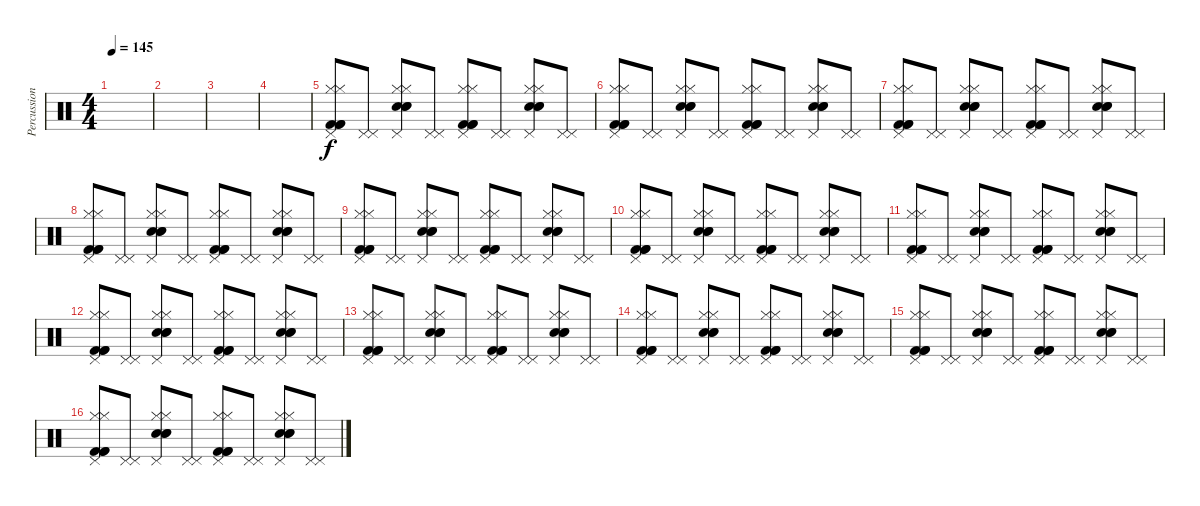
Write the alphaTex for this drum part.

\track ("Percussion" "Percussion") {instrument percussion}
\staff {score}
\articulation defaults
\ts (4 4)
\tempo 145
\clef neutral
\ks c
|
|
|
|
("Pedal Hi-Hat (hit)" "Hi-Hat (closed)" "Hi-Hat (closed)" "Kick (hit) 2" "Kick (hit) 2" "Kick (hit) 2").8 ("Pedal Hi-Hat (hit)" "Pedal Hi-Hat (hit)").8 ("Pedal Hi-Hat (hit)" "Hi-Hat (closed)" "Hi-Hat (closed)" "Snare (hit) 2" "Snare (hit) 2" "Snare (hit) 2").8 ("Pedal Hi-Hat (hit)" "Pedal Hi-Hat (hit)").8 ("Pedal Hi-Hat (hit)" "Hi-Hat (closed)" "Hi-Hat (closed)" "Kick (hit) 2" "Kick (hit) 2" "Kick (hit) 2").8 ("Pedal Hi-Hat (hit)" "Pedal Hi-Hat (hit)").8 ("Pedal Hi-Hat (hit)" "Hi-Hat (closed)" "Hi-Hat (closed)" "Snare (hit) 2" "Snare (hit) 2" "Snare (hit) 2").8 ("Pedal Hi-Hat (hit)" "Pedal Hi-Hat (hit)").8 |
("Pedal Hi-Hat (hit)" "Hi-Hat (closed)" "Hi-Hat (closed)" "Kick (hit) 2" "Kick (hit) 2" "Kick (hit) 2").8 ("Pedal Hi-Hat (hit)" "Pedal Hi-Hat (hit)").8 ("Pedal Hi-Hat (hit)" "Hi-Hat (closed)" "Hi-Hat (closed)" "Snare (hit) 2" "Snare (hit) 2" "Snare (hit) 2").8 ("Pedal Hi-Hat (hit)" "Pedal Hi-Hat (hit)").8 ("Pedal Hi-Hat (hit)" "Hi-Hat (closed)" "Hi-Hat (closed)" "Kick (hit) 2" "Kick (hit) 2" "Kick (hit) 2").8 ("Pedal Hi-Hat (hit)" "Pedal Hi-Hat (hit)").8 ("Pedal Hi-Hat (hit)" "Hi-Hat (closed)" "Hi-Hat (closed)" "Snare (hit) 2" "Snare (hit) 2" "Snare (hit) 2").8 ("Pedal Hi-Hat (hit)" "Pedal Hi-Hat (hit)").8 |
("Pedal Hi-Hat (hit)" "Hi-Hat (closed)" "Hi-Hat (closed)" "Kick (hit) 2" "Kick (hit) 2" "Kick (hit) 2").8 ("Pedal Hi-Hat (hit)" "Pedal Hi-Hat (hit)").8 ("Pedal Hi-Hat (hit)" "Hi-Hat (closed)" "Hi-Hat (closed)" "Snare (hit) 2" "Snare (hit) 2" "Snare (hit) 2").8 ("Pedal Hi-Hat (hit)" "Pedal Hi-Hat (hit)").8 ("Pedal Hi-Hat (hit)" "Hi-Hat (closed)" "Hi-Hat (closed)" "Kick (hit) 2" "Kick (hit) 2" "Kick (hit) 2").8 ("Pedal Hi-Hat (hit)" "Pedal Hi-Hat (hit)").8 ("Pedal Hi-Hat (hit)" "Hi-Hat (closed)" "Hi-Hat (closed)" "Snare (hit) 2" "Snare (hit) 2" "Snare (hit) 2").8 ("Pedal Hi-Hat (hit)" "Pedal Hi-Hat (hit)").8 |
("Pedal Hi-Hat (hit)" "Hi-Hat (closed)" "Hi-Hat (closed)" "Kick (hit) 2" "Kick (hit) 2" "Kick (hit) 2").8 ("Pedal Hi-Hat (hit)" "Pedal Hi-Hat (hit)").8 ("Pedal Hi-Hat (hit)" "Hi-Hat (closed)" "Hi-Hat (closed)" "Snare (hit) 2" "Snare (hit) 2" "Snare (hit) 2").8 ("Pedal Hi-Hat (hit)" "Pedal Hi-Hat (hit)").8 ("Pedal Hi-Hat (hit)" "Hi-Hat (closed)" "Hi-Hat (closed)" "Kick (hit) 2" "Kick (hit) 2" "Kick (hit) 2").8 ("Pedal Hi-Hat (hit)" "Pedal Hi-Hat (hit)").8 ("Pedal Hi-Hat (hit)" "Hi-Hat (closed)" "Hi-Hat (closed)" "Snare (hit) 2" "Snare (hit) 2" "Snare (hit) 2").8 ("Pedal Hi-Hat (hit)" "Pedal Hi-Hat (hit)").8 |
("Pedal Hi-Hat (hit)" "Hi-Hat (closed)" "Hi-Hat (closed)" "Kick (hit) 2" "Kick (hit) 2" "Kick (hit) 2").8 ("Pedal Hi-Hat (hit)" "Pedal Hi-Hat (hit)").8 ("Pedal Hi-Hat (hit)" "Hi-Hat (closed)" "Hi-Hat (closed)" "Snare (hit) 2" "Snare (hit) 2" "Snare (hit) 2").8 ("Pedal Hi-Hat (hit)" "Pedal Hi-Hat (hit)").8 ("Pedal Hi-Hat (hit)" "Hi-Hat (closed)" "Hi-Hat (closed)" "Kick (hit) 2" "Kick (hit) 2" "Kick (hit) 2").8 ("Pedal Hi-Hat (hit)" "Pedal Hi-Hat (hit)").8 ("Pedal Hi-Hat (hit)" "Hi-Hat (closed)" "Hi-Hat (closed)" "Snare (hit) 2" "Snare (hit) 2" "Snare (hit) 2").8 ("Pedal Hi-Hat (hit)" "Pedal Hi-Hat (hit)").8 |
("Pedal Hi-Hat (hit)" "Hi-Hat (closed)" "Hi-Hat (closed)" "Kick (hit) 2" "Kick (hit) 2" "Kick (hit) 2").8 ("Pedal Hi-Hat (hit)" "Pedal Hi-Hat (hit)").8 ("Pedal Hi-Hat (hit)" "Hi-Hat (closed)" "Hi-Hat (closed)" "Snare (hit) 2" "Snare (hit) 2" "Snare (hit) 2").8 ("Pedal Hi-Hat (hit)" "Pedal Hi-Hat (hit)").8 ("Pedal Hi-Hat (hit)" "Hi-Hat (closed)" "Hi-Hat (closed)" "Kick (hit) 2" "Kick (hit) 2" "Kick (hit) 2").8 ("Pedal Hi-Hat (hit)" "Pedal Hi-Hat (hit)").8 ("Pedal Hi-Hat (hit)" "Hi-Hat (closed)" "Hi-Hat (closed)" "Snare (hit) 2" "Snare (hit) 2" "Snare (hit) 2").8 ("Pedal Hi-Hat (hit)" "Pedal Hi-Hat (hit)").8 |
("Pedal Hi-Hat (hit)" "Hi-Hat (closed)" "Hi-Hat (closed)" "Kick (hit) 2" "Kick (hit) 2" "Kick (hit) 2").8 ("Pedal Hi-Hat (hit)" "Pedal Hi-Hat (hit)").8 ("Pedal Hi-Hat (hit)" "Hi-Hat (closed)" "Hi-Hat (closed)" "Snare (hit) 2" "Snare (hit) 2" "Snare (hit) 2").8 ("Pedal Hi-Hat (hit)" "Pedal Hi-Hat (hit)").8 ("Pedal Hi-Hat (hit)" "Hi-Hat (closed)" "Hi-Hat (closed)" "Kick (hit) 2" "Kick (hit) 2" "Kick (hit) 2").8 ("Pedal Hi-Hat (hit)" "Pedal Hi-Hat (hit)").8 ("Pedal Hi-Hat (hit)" "Hi-Hat (closed)" "Hi-Hat (closed)" "Snare (hit) 2" "Snare (hit) 2" "Snare (hit) 2").8 ("Pedal Hi-Hat (hit)" "Pedal Hi-Hat (hit)").8 |
("Pedal Hi-Hat (hit)" "Hi-Hat (closed)" "Hi-Hat (closed)" "Kick (hit) 2" "Kick (hit) 2" "Kick (hit) 2").8 ("Pedal Hi-Hat (hit)" "Pedal Hi-Hat (hit)").8 ("Pedal Hi-Hat (hit)" "Hi-Hat (closed)" "Hi-Hat (closed)" "Snare (hit) 2" "Snare (hit) 2" "Snare (hit) 2").8 ("Pedal Hi-Hat (hit)" "Pedal Hi-Hat (hit)").8 ("Pedal Hi-Hat (hit)" "Hi-Hat (closed)" "Hi-Hat (closed)" "Kick (hit) 2" "Kick (hit) 2" "Kick (hit) 2").8 ("Pedal Hi-Hat (hit)" "Pedal Hi-Hat (hit)").8 ("Pedal Hi-Hat (hit)" "Hi-Hat (closed)" "Hi-Hat (closed)" "Snare (hit) 2" "Snare (hit) 2" "Snare (hit) 2").8 ("Pedal Hi-Hat (hit)" "Pedal Hi-Hat (hit)").8 |
("Pedal Hi-Hat (hit)" "Hi-Hat (closed)" "Hi-Hat (closed)" "Kick (hit) 2" "Kick (hit) 2" "Kick (hit) 2").8 ("Pedal Hi-Hat (hit)" "Pedal Hi-Hat (hit)").8 ("Pedal Hi-Hat (hit)" "Hi-Hat (closed)" "Hi-Hat (closed)" "Snare (hit) 2" "Snare (hit) 2" "Snare (hit) 2").8 ("Pedal Hi-Hat (hit)" "Pedal Hi-Hat (hit)").8 ("Pedal Hi-Hat (hit)" "Hi-Hat (closed)" "Hi-Hat (closed)" "Kick (hit) 2" "Kick (hit) 2" "Kick (hit) 2").8 ("Pedal Hi-Hat (hit)" "Pedal Hi-Hat (hit)").8 ("Pedal Hi-Hat (hit)" "Hi-Hat (closed)" "Hi-Hat (closed)" "Snare (hit) 2" "Snare (hit) 2" "Snare (hit) 2").8 ("Pedal Hi-Hat (hit)" "Pedal Hi-Hat (hit)").8 |
("Pedal Hi-Hat (hit)" "Hi-Hat (closed)" "Hi-Hat (closed)" "Kick (hit) 2" "Kick (hit) 2" "Kick (hit) 2").8 ("Pedal Hi-Hat (hit)" "Pedal Hi-Hat (hit)").8 ("Pedal Hi-Hat (hit)" "Hi-Hat (closed)" "Hi-Hat (closed)" "Snare (hit) 2" "Snare (hit) 2" "Snare (hit) 2").8 ("Pedal Hi-Hat (hit)" "Pedal Hi-Hat (hit)").8 ("Pedal Hi-Hat (hit)" "Hi-Hat (closed)" "Hi-Hat (closed)" "Kick (hit) 2" "Kick (hit) 2" "Kick (hit) 2").8 ("Pedal Hi-Hat (hit)" "Pedal Hi-Hat (hit)").8 ("Pedal Hi-Hat (hit)" "Hi-Hat (closed)" "Hi-Hat (closed)" "Snare (hit) 2" "Snare (hit) 2" "Snare (hit) 2").8 ("Pedal Hi-Hat (hit)" "Pedal Hi-Hat (hit)").8 |
("Pedal Hi-Hat (hit)" "Hi-Hat (closed)" "Hi-Hat (closed)" "Kick (hit) 2" "Kick (hit) 2" "Kick (hit) 2").8 ("Pedal Hi-Hat (hit)" "Pedal Hi-Hat (hit)").8 ("Pedal Hi-Hat (hit)" "Hi-Hat (closed)" "Hi-Hat (closed)" "Snare (hit) 2" "Snare (hit) 2" "Snare (hit) 2").8 ("Pedal Hi-Hat (hit)" "Pedal Hi-Hat (hit)").8 ("Pedal Hi-Hat (hit)" "Hi-Hat (closed)" "Hi-Hat (closed)" "Kick (hit) 2" "Kick (hit) 2" "Kick (hit) 2").8 ("Pedal Hi-Hat (hit)" "Pedal Hi-Hat (hit)").8 ("Pedal Hi-Hat (hit)" "Hi-Hat (closed)" "Hi-Hat (closed)" "Snare (hit) 2" "Snare (hit) 2" "Snare (hit) 2").8 ("Pedal Hi-Hat (hit)" "Pedal Hi-Hat (hit)").8 |
("Pedal Hi-Hat (hit)" "Hi-Hat (closed)" "Hi-Hat (closed)" "Kick (hit) 2" "Kick (hit) 2" "Kick (hit) 2").8 ("Pedal Hi-Hat (hit)" "Pedal Hi-Hat (hit)").8 ("Pedal Hi-Hat (hit)" "Hi-Hat (closed)" "Hi-Hat (closed)" "Snare (hit) 2" "Snare (hit) 2" "Snare (hit) 2").8 ("Pedal Hi-Hat (hit)" "Pedal Hi-Hat (hit)").8 ("Pedal Hi-Hat (hit)" "Hi-Hat (closed)" "Hi-Hat (closed)" "Kick (hit) 2" "Kick (hit) 2" "Kick (hit) 2").8 ("Pedal Hi-Hat (hit)" "Pedal Hi-Hat (hit)").8 ("Pedal Hi-Hat (hit)" "Hi-Hat (closed)" "Hi-Hat (closed)" "Snare (hit) 2" "Snare (hit) 2" "Snare (hit) 2").8 ("Pedal Hi-Hat (hit)" "Pedal Hi-Hat (hit)").8
